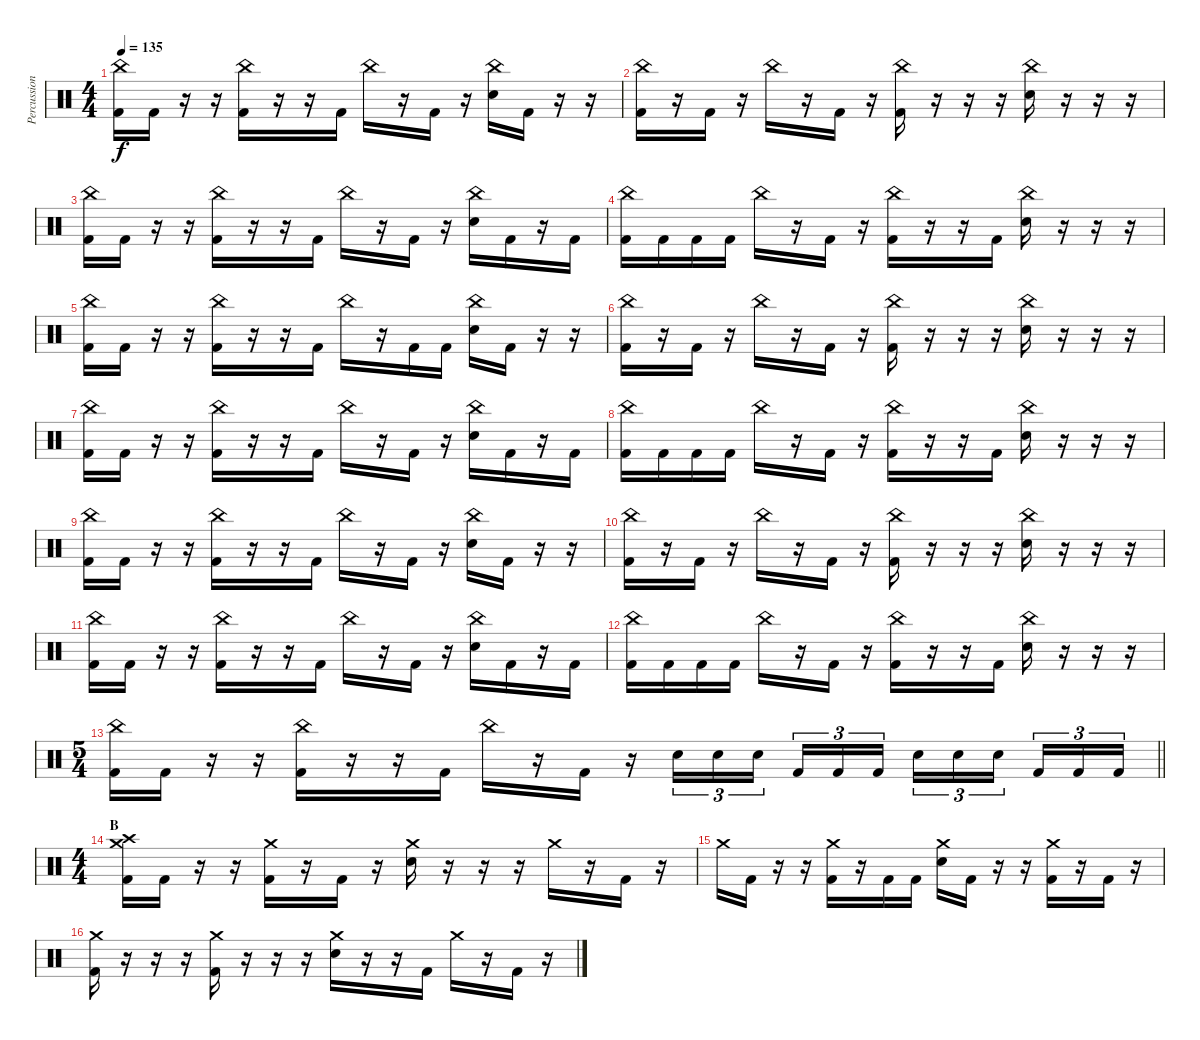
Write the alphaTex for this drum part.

\track ("Percussion" "Percussion") {instrument percussion}
\staff {score}
\articulation defaults
\ts (4 4)
\tempo 135
\clef neutral
\ks c
("China (hit)" "Kick (hit) 2").16{dy f} "Kick (hit) 2".16 r.16 r.16 ("China (hit)" "Kick (hit) 2").16 r.16 r.16 "Kick (hit) 2".16 "China (hit)".16 r.16 "Kick (hit) 2".16 r.16 ("China (hit)" "Snare (hit) 2").16 "Kick (hit) 2".16 r.16 r.16 |
("China (hit)" "Kick (hit) 2").16 r.16 "Kick (hit) 2".16 r.16 "China (hit)".16 r.16 "Kick (hit) 2".16 r.16 ("China (hit)" "Kick (hit) 2").16 r.16 r.16 r.16 ("China (hit)" "Snare (hit) 2").16 r.16 r.16 r.16 |
("China (hit)" "Kick (hit) 2").16 "Kick (hit) 2".16 r.16 r.16 ("China (hit)" "Kick (hit) 2").16 r.16 r.16 "Kick (hit) 2".16 "China (hit)".16 r.16 "Kick (hit) 2".16 r.16 ("China (hit)" "Snare (hit) 2").16 "Kick (hit) 2".16 r.16 "Kick (hit) 2".16 |
("China (hit)" "Kick (hit) 2").16 "Kick (hit) 2".16 "Kick (hit) 2".16 "Kick (hit) 2".16 "China (hit)".16 r.16 "Kick (hit) 2".16 r.16 ("China (hit)" "Kick (hit) 2").16 r.16 r.16 "Kick (hit) 2".16 ("China (hit)" "Snare (hit) 2").16 r.16 r.16 r.16 |
("China (hit)" "Kick (hit) 2").16 "Kick (hit) 2".16 r.16 r.16 ("China (hit)" "Kick (hit) 2").16 r.16 r.16 "Kick (hit) 2".16 "China (hit)".16 r.16 "Kick (hit) 2".16 "Kick (hit) 2".16 ("China (hit)" "Snare (hit) 2").16 "Kick (hit) 2".16 r.16 r.16 |
("China (hit)" "Kick (hit) 2").16 r.16 "Kick (hit) 2".16 r.16 "China (hit)".16 r.16 "Kick (hit) 2".16 r.16 ("China (hit)" "Kick (hit) 2").16 r.16 r.16 r.16 ("China (hit)" "Snare (hit) 2").16 r.16 r.16 r.16 |
("China (hit)" "Kick (hit) 2").16 "Kick (hit) 2".16 r.16 r.16 ("China (hit)" "Kick (hit) 2").16 r.16 r.16 "Kick (hit) 2".16 "China (hit)".16 r.16 "Kick (hit) 2".16 r.16 ("China (hit)" "Snare (hit) 2").16 "Kick (hit) 2".16 r.16 "Kick (hit) 2".16 |
("China (hit)" "Kick (hit) 2").16 "Kick (hit) 2".16 "Kick (hit) 2".16 "Kick (hit) 2".16 "China (hit)".16 r.16 "Kick (hit) 2".16 r.16 ("China (hit)" "Kick (hit) 2").16 r.16 r.16 "Kick (hit) 2".16 ("China (hit)" "Snare (hit) 2").16 r.16 r.16 r.16 |
("China (hit)" "Kick (hit) 2").16 "Kick (hit) 2".16 r.16 r.16 ("China (hit)" "Kick (hit) 2").16 r.16 r.16 "Kick (hit) 2".16 "China (hit)".16 r.16 "Kick (hit) 2".16 r.16 ("China (hit)" "Snare (hit) 2").16 "Kick (hit) 2".16 r.16 r.16 |
("China (hit)" "Kick (hit) 2").16 r.16 "Kick (hit) 2".16 r.16 "China (hit)".16 r.16 "Kick (hit) 2".16 r.16 ("China (hit)" "Kick (hit) 2").16 r.16 r.16 r.16 ("China (hit)" "Snare (hit) 2").16 r.16 r.16 r.16 |
("China (hit)" "Kick (hit) 2").16 "Kick (hit) 2".16 r.16 r.16 ("China (hit)" "Kick (hit) 2").16 r.16 r.16 "Kick (hit) 2".16 "China (hit)".16 r.16 "Kick (hit) 2".16 r.16 ("China (hit)" "Snare (hit) 2").16 "Kick (hit) 2".16 r.16 "Kick (hit) 2".16 |
("China (hit)" "Kick (hit) 2").16 "Kick (hit) 2".16 "Kick (hit) 2".16 "Kick (hit) 2".16 "China (hit)".16 r.16 "Kick (hit) 2".16 r.16 ("China (hit)" "Kick (hit) 2").16 r.16 r.16 "Kick (hit) 2".16 ("China (hit)" "Snare (hit) 2").16 r.16 r.16 r.16 |
\ts (5 4)
\barLineRight lightlight
("China (hit)" "Kick (hit) 2").16 "Kick (hit) 2".16 r.16 r.16 ("China (hit)" "Kick (hit) 2").16 r.16 r.16 "Kick (hit) 2".16 "China (hit)".16 r.16 "Kick (hit) 2".16 r.16 "Snare (hit) 2".16{tu (3 2)} "Snare (hit) 2".16{tu (3 2)} "Snare (hit) 2".16{tu (3 2) beam splitsecondary} "Kick (hit) 2".16{tu (3 2)} "Kick (hit) 2".16{tu (3 2)} "Kick (hit) 2".16{tu (3 2)} "Snare (hit) 2".16{tu (3 2)} "Snare (hit) 2".16{tu (3 2)} "Snare (hit) 2".16{tu (3 2) beam splitsecondary} "Kick (hit) 2".16{tu (3 2)} "Kick (hit) 2".16{tu (3 2)} "Kick (hit) 2".16{tu (3 2)} |
\ts (4 4)
\section ("" "B")
("Crash high (hit)" "Crash medium (hit)" "Kick (hit) 2").16 "Kick (hit) 2".16 r.16 r.16 ("Crash medium (hit)" "Kick (hit) 2").16 r.16 "Kick (hit) 2".16 r.16 ("Crash medium (hit)" "Snare (hit) 2").16 r.16 r.16 r.16 "Crash medium (hit)".16 r.16 "Kick (hit) 2".16 r.16 |
"Crash medium (hit)".16 "Kick (hit) 2".16 r.16 r.16 ("Crash medium (hit)" "Kick (hit) 2").16 r.16 "Kick (hit) 2".16 "Kick (hit) 2".16 ("Crash medium (hit)" "Snare (hit) 2").16 "Kick (hit) 2".16 r.16 r.16 ("Crash medium (hit)" "Kick (hit) 2").16 r.16 "Kick (hit) 2".16 r.16 |
("Crash medium (hit)" "Kick (hit) 2").16 r.16 r.16 r.16 ("Crash medium (hit)" "Kick (hit) 2").16 r.16 r.16 r.16 ("Crash medium (hit)" "Snare (hit) 2").16 r.16 r.16 "Kick (hit) 2".16 "Crash medium (hit)".16 r.16 "Kick (hit) 2".16 r.16
